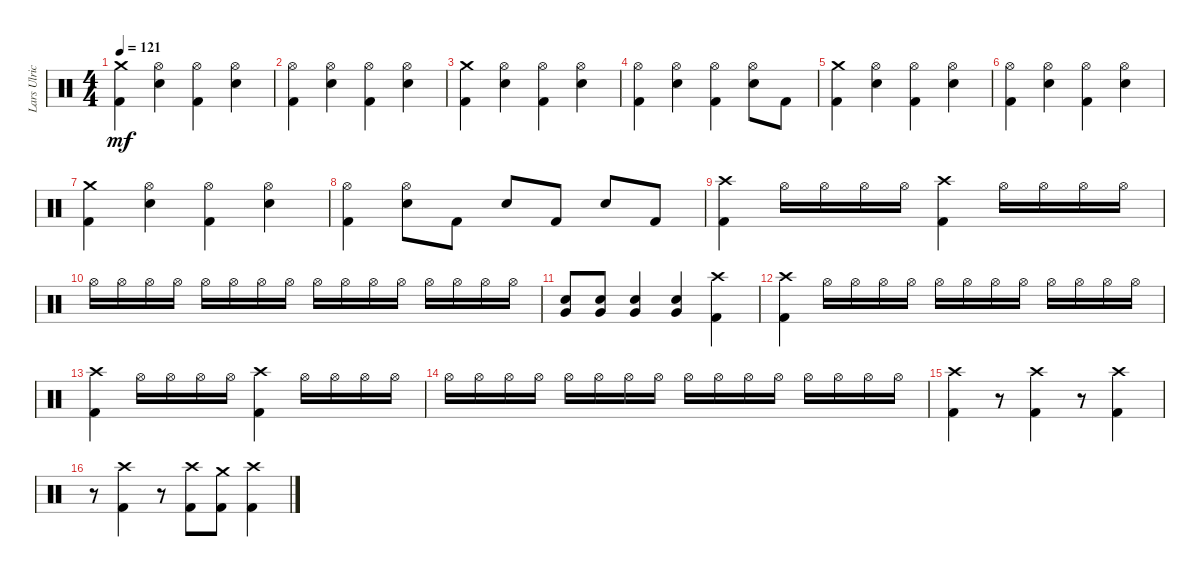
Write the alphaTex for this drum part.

\track ("Lars Ulrich" "Lars Ulric") {instrument percussion}
\staff {score}
\articulation defaults
\ts (4 4)
\tempo 121
\clef neutral
\ks c
("Kick (hit) 2" "Crash medium (hit)").4{dy mf} ("Hi-Hat (open)" "Snare (hit) 2").4 ("Hi-Hat (open)" "Kick (hit) 2").4 ("Hi-Hat (open)" "Snare (hit) 2").4 |
("Hi-Hat (open)" "Kick (hit) 2").4 ("Hi-Hat (open)" "Snare (hit) 2").4 ("Hi-Hat (open)" "Kick (hit) 2").4 ("Hi-Hat (open)" "Snare (hit) 2").4 |
("Kick (hit) 2" "Crash medium (hit)").4 ("Hi-Hat (open)" "Snare (hit) 2").4 ("Hi-Hat (open)" "Kick (hit) 2").4 ("Hi-Hat (open)" "Snare (hit) 2").4 |
("Hi-Hat (open)" "Kick (hit) 2").4 ("Hi-Hat (open)" "Snare (hit) 2").4 ("Hi-Hat (open)" "Kick (hit) 2").4 ("Hi-Hat (open)" "Snare (hit) 2").8 "Kick (hit) 2".8 |
("Kick (hit) 2" "Crash medium (hit)").4 ("Hi-Hat (open)" "Snare (hit) 2").4 ("Hi-Hat (open)" "Kick (hit) 2").4 ("Hi-Hat (open)" "Snare (hit) 2").4 |
("Hi-Hat (open)" "Kick (hit) 2").4 ("Hi-Hat (open)" "Snare (hit) 2").4 ("Hi-Hat (open)" "Kick (hit) 2").4 ("Hi-Hat (open)" "Snare (hit) 2").4 |
("Kick (hit) 2" "Crash medium (hit)").4 ("Hi-Hat (open)" "Snare (hit) 2").4 ("Hi-Hat (open)" "Kick (hit) 2").4 ("Hi-Hat (open)" "Snare (hit) 2").4 |
("Hi-Hat (open)" "Kick (hit) 2").4 ("Hi-Hat (open)" "Snare (hit) 2").8 "Kick (hit) 2".8 "Snare (hit) 2".8 "Kick (hit) 2".8 "Snare (hit) 2".8 "Kick (hit) 2".8 |
("Kick (hit) 2" "Crash high (hit)").4 "Hi-Hat (open)".16 "Hi-Hat (open)".16 "Hi-Hat (open)".16 "Hi-Hat (open)".16 ("Kick (hit) 2" "Crash high (hit)").4 "Hi-Hat (open)".16 "Hi-Hat (open)".16 "Hi-Hat (open)".16 "Hi-Hat (open)".16 |
"Hi-Hat (open)".16 "Hi-Hat (open)".16 "Hi-Hat (open)".16 "Hi-Hat (open)".16 "Hi-Hat (open)".16 "Hi-Hat (open)".16 "Hi-Hat (open)".16 "Hi-Hat (open)".16 "Hi-Hat (open)".16 "Hi-Hat (open)".16 "Hi-Hat (open)".16 "Hi-Hat (open)".16 "Hi-Hat (open)".16 "Hi-Hat (open)".16 "Hi-Hat (open)".16 "Hi-Hat (open)".16 |
("Snare (hit) 2" "Very Low Tom (hit)").8 ("Snare (hit) 2" "Very Low Tom (hit)").8 ("Snare (hit) 2" "Very Low Tom (hit)").4 ("Snare (hit) 2" "Very Low Tom (hit)").4 ("Kick (hit) 2" "Crash high (hit)").4 |
("Kick (hit) 2" "Crash high (hit)").4 "Hi-Hat (open)".16 "Hi-Hat (open)".16 "Hi-Hat (open)".16 "Hi-Hat (open)".16 "Hi-Hat (open)".16 "Hi-Hat (open)".16 "Hi-Hat (open)".16 "Hi-Hat (open)".16 "Hi-Hat (open)".16 "Hi-Hat (open)".16 "Hi-Hat (open)".16 "Hi-Hat (open)".16 |
("Kick (hit) 2" "Crash high (hit)").4 "Hi-Hat (open)".16 "Hi-Hat (open)".16 "Hi-Hat (open)".16 "Hi-Hat (open)".16 ("Kick (hit) 2" "Crash high (hit)").4 "Hi-Hat (open)".16 "Hi-Hat (open)".16 "Hi-Hat (open)".16 "Hi-Hat (open)".16 |
"Hi-Hat (open)".16 "Hi-Hat (open)".16 "Hi-Hat (open)".16 "Hi-Hat (open)".16 "Hi-Hat (open)".16 "Hi-Hat (open)".16 "Hi-Hat (open)".16 "Hi-Hat (open)".16 "Hi-Hat (open)".16 "Hi-Hat (open)".16 "Hi-Hat (open)".16 "Hi-Hat (open)".16 "Hi-Hat (open)".16 "Hi-Hat (open)".16 "Hi-Hat (open)".16 "Hi-Hat (open)".16 |
("Kick (hit) 2" "Crash high (hit)").4 r.8 ("Kick (hit) 2" "Crash high (hit)").4 r.8 ("Kick (hit) 2" "Crash high (hit)").4 |
r.8 ("Kick (hit) 2" "Crash high (hit)").4 r.8 ("Kick (hit) 2" "Crash high (hit)").8 ("Kick (hit) 2" "Crash medium (hit)").8 ("Kick (hit) 2" "Crash high (hit)").4
